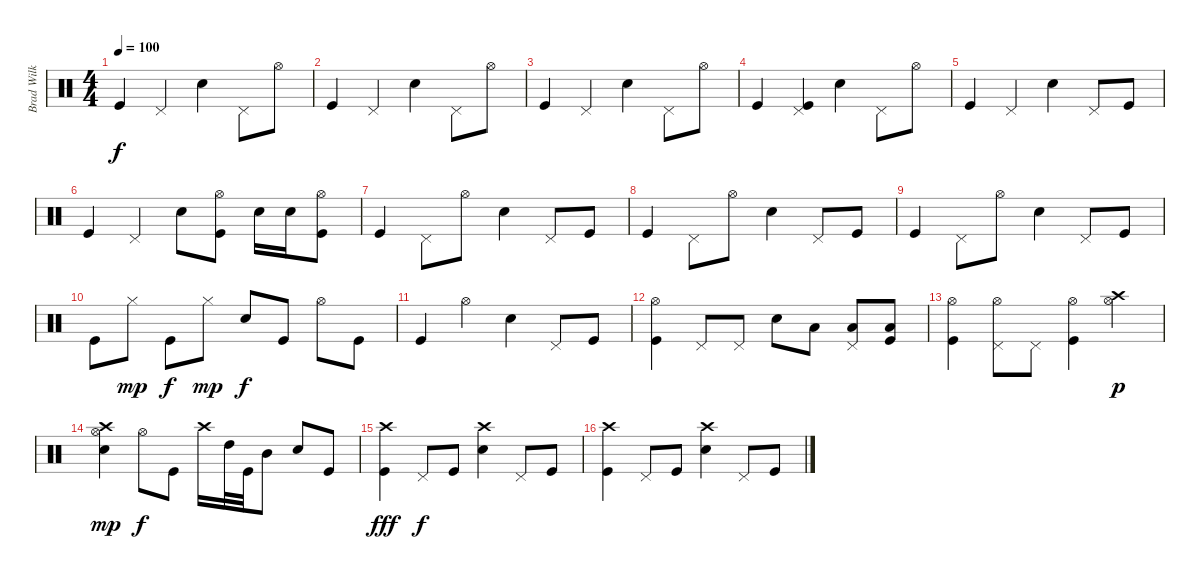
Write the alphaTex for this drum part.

\track ("Brad Wilk - Drums" "Brad Wilk ") {instrument percussion}
\staff {score}
\articulation defaults
\ts (4 4)
\tempo 100
\clef neutral
\ks c "Kick (hit)".4{dy f} "Pedal Hi-Hat (hit)".4 "Electric Snare (hit)".4 "Pedal Hi-Hat (hit)".8 "Hi-Hat (open)".8
|
"Kick (hit)".4 "Pedal Hi-Hat (hit)".4 "Electric Snare (hit)".4 "Pedal Hi-Hat (hit)".8 "Hi-Hat (open)".8 |
"Kick (hit)".4 "Pedal Hi-Hat (hit)".4 "Electric Snare (hit)".4 "Pedal Hi-Hat (hit)".8 "Hi-Hat (open)".8 |
"Kick (hit)".4 ("Pedal Hi-Hat (hit)" "Kick (hit)").4 "Electric Snare (hit)".4 "Pedal Hi-Hat (hit)".8 "Hi-Hat (open)".8 |
"Kick (hit)".4 "Pedal Hi-Hat (hit)".4 "Electric Snare (hit)".4 "Pedal Hi-Hat (hit)".8 "Kick (hit)".8 |
"Kick (hit)".4 "Pedal Hi-Hat (hit)".4 "Electric Snare (hit)".8 ("Hi-Hat (open)" "Kick (hit)").8 "Electric Snare (hit)".16 "Electric Snare (hit)".16 ("Hi-Hat (open)" "Kick (hit)").8 |
"Kick (hit)".4 "Pedal Hi-Hat (hit)".8 "Hi-Hat (open)".8 "Electric Snare (hit)".4 "Pedal Hi-Hat (hit)".8 "Kick (hit)".8 |
"Kick (hit)".4 "Pedal Hi-Hat (hit)".8 "Hi-Hat (open)".8 "Electric Snare (hit)".4 "Pedal Hi-Hat (hit)".8 "Kick (hit)".8 |
"Kick (hit)".4 "Pedal Hi-Hat (hit)".8 "Hi-Hat (open)".8 "Electric Snare (hit)".4 "Pedal Hi-Hat (hit)".8 "Kick (hit)".8 |
"Kick (hit)".8 "Hi-Hat (closed)".8{dy mp} "Kick (hit)".8{dy f} "Hi-Hat (closed)".8{dy mp} "Electric Snare (hit)".8{dy f} "Kick (hit)".8 "Hi-Hat (open)".8 "Kick (hit)".8 |
"Kick (hit)".4 "Hi-Hat (open)".4 "Electric Snare (hit)".4 "Pedal Hi-Hat (hit)".8 "Kick (hit)".8 |
("Hi-Hat (open)" "Kick (hit)").4 "Pedal Hi-Hat (hit)".8 "Pedal Hi-Hat (hit)".8 "Electric Snare (hit)".8 "Low Tom (hit)".8 ("Pedal Hi-Hat (hit)" "Low Tom (hit)").8 ("Low Tom (hit)" "Kick (hit)").8 |
("Hi-Hat (open)" "Kick (hit)").4 ("Hi-Hat (open)" "Pedal Hi-Hat (hit)").8 "Pedal Hi-Hat (hit)".8 ("Hi-Hat (open)" "Kick (hit)").4 ("Hi-Hat (open)" "Crash high (hit)").4{dy p} |
("Hi-Hat (open)" "Crash high (hit)" "Electric Snare (hit)").4{dy mp} "Hi-Hat (open)".8{dy f} "Kick (hit)".8 "Crash high (hit)".16 "High Tom (hit)".32 "Kick (hit)".32 "Mid Tom (hit)".8 "Electric Snare (hit)".8 "Kick (hit)".8 |
("Crash high (hit)" "Kick (hit)").4{dy fff} "Pedal Hi-Hat (hit)".8{dy f} "Kick (hit)".8 ("Crash high (hit)" "Electric Snare (hit)").4 "Pedal Hi-Hat (hit)".8 "Kick (hit)".8 |
("Crash high (hit)" "Kick (hit)").4 "Pedal Hi-Hat (hit)".8 "Kick (hit)".8 ("Crash high (hit)" "Electric Snare (hit)").4 "Pedal Hi-Hat (hit)".8 "Kick (hit)".8
